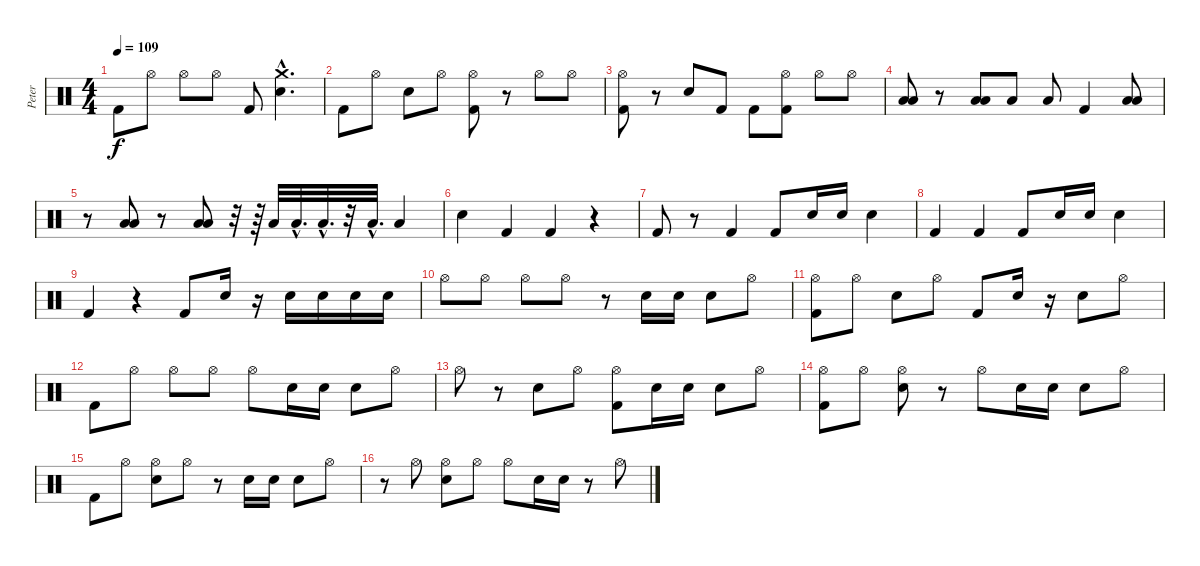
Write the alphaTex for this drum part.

\track ("Peter" "Peter") {instrument percussion}
\staff {score}
\articulation defaults
\ts (4 4)
\tempo 109
\clef neutral
\ks c "Kick (hit) 2".8{dy f} "Hi-Hat (open)".8 "Hi-Hat (open)".8 "Hi-Hat (open)".8 "Kick (hit) 2".8
("Electric Snare (hit)"{hac} "Crash medium (hit)"{hac}).4{d} |
"Kick (hit) 2".8 "Hi-Hat (open)".8 "Electric Snare (hit)".8 "Hi-Hat (open)".8 ("Hi-Hat (open)" "Kick (hit) 2").8 r.8 "Hi-Hat (open)".8 "Hi-Hat (open)".8 |
("Kick (hit) 2" "Hi-Hat (open)").8 r.8 "Electric Snare (hit)".8 "Kick (hit) 2".8 "Kick (hit) 2".8 ("Kick (hit) 2" "Hi-Hat (open)").8 "Hi-Hat (open)".8 "Hi-Hat (open)".8 |
("Low Tom (hit)" "Low Floor Tom (hit)").8 r.8 ("Low Floor Tom (hit)" "Low Tom (hit)").8 "Low Tom (hit)".8 "Low Tom (hit)".8 "Kick (hit) 2".4 ("Low Tom (hit)" "Low Floor Tom (hit)").8 |
r.8 ("Low Tom (hit)" "Low Floor Tom (hit)").8 r.8 ("Low Tom (hit)" "Low Floor Tom (hit)").8 r.32 r.64 "Low Tom (hit)".32 "Low Tom (hit)"{hac}.32{d} "Low Tom (hit)"{hac}.32{d} r.32 "Low Tom (hit)"{hac}.32{d} "Low Tom (hit)".4 |
"Electric Snare (hit)".4 "Kick (hit) 2".4 "Kick (hit) 2".4 r.4 |
"Kick (hit) 2".8 r.8 "Kick (hit) 2".4 "Kick (hit) 2".8 "Electric Snare (hit)".16 "Electric Snare (hit)".16 "Electric Snare (hit)".4 |
"Kick (hit) 2".4 "Kick (hit) 2".4 "Kick (hit) 2".8 "Electric Snare (hit)".16 "Electric Snare (hit)".16 "Electric Snare (hit)".4 |
"Kick (hit) 2".4 r.4 "Kick (hit) 2".8 "Electric Snare (hit)".16 r.16 "Electric Snare (hit)".16 "Electric Snare (hit)".16 "Electric Snare (hit)".16 "Electric Snare (hit)".16 |
"Hi-Hat (open)".8 "Hi-Hat (open)".8 "Hi-Hat (open)".8 "Hi-Hat (open)".8 r.8 "Electric Snare (hit)".16 "Electric Snare (hit)".16 "Electric Snare (hit)".8 "Hi-Hat (open)".8 |
("Hi-Hat (open)" "Kick (hit) 2").8 "Hi-Hat (open)".8 "Electric Snare (hit)".8 "Hi-Hat (open)".8 "Kick (hit) 2".8 "Electric Snare (hit)".16 r.16 "Electric Snare (hit)".8 "Hi-Hat (open)".8 |
"Kick (hit) 2".8 "Hi-Hat (open)".8 "Hi-Hat (open)".8 "Hi-Hat (open)".8 "Hi-Hat (open)".8 "Electric Snare (hit)".16 "Electric Snare (hit)".16 "Electric Snare (hit)".8 "Hi-Hat (open)".8 |
"Hi-Hat (open)".8 r.8 "Electric Snare (hit)".8 "Hi-Hat (open)".8 ("Kick (hit) 2" "Hi-Hat (open)").8 "Electric Snare (hit)".16 "Electric Snare (hit)".16 "Electric Snare (hit)".8 "Hi-Hat (open)".8 |
("Hi-Hat (open)" "Kick (hit) 2").8 "Hi-Hat (open)".8 ("Electric Snare (hit)" "Hi-Hat (open)").8 r.8 "Hi-Hat (open)".8 "Electric Snare (hit)".16 "Electric Snare (hit)".16 "Electric Snare (hit)".8 "Hi-Hat (open)".8 |
"Kick (hit) 2".8 "Hi-Hat (open)".8 ("Electric Snare (hit)" "Hi-Hat (open)").8 "Hi-Hat (open)".8 r.8 "Electric Snare (hit)".16 "Electric Snare (hit)".16 "Electric Snare (hit)".8 "Hi-Hat (open)".8 |
r.8 "Hi-Hat (open)".8 ("Electric Snare (hit)" "Hi-Hat (open)").8 "Hi-Hat (open)".8 "Hi-Hat (open)".8 "Electric Snare (hit)".16 "Electric Snare (hit)".16 r.8 "Hi-Hat (open)".8
